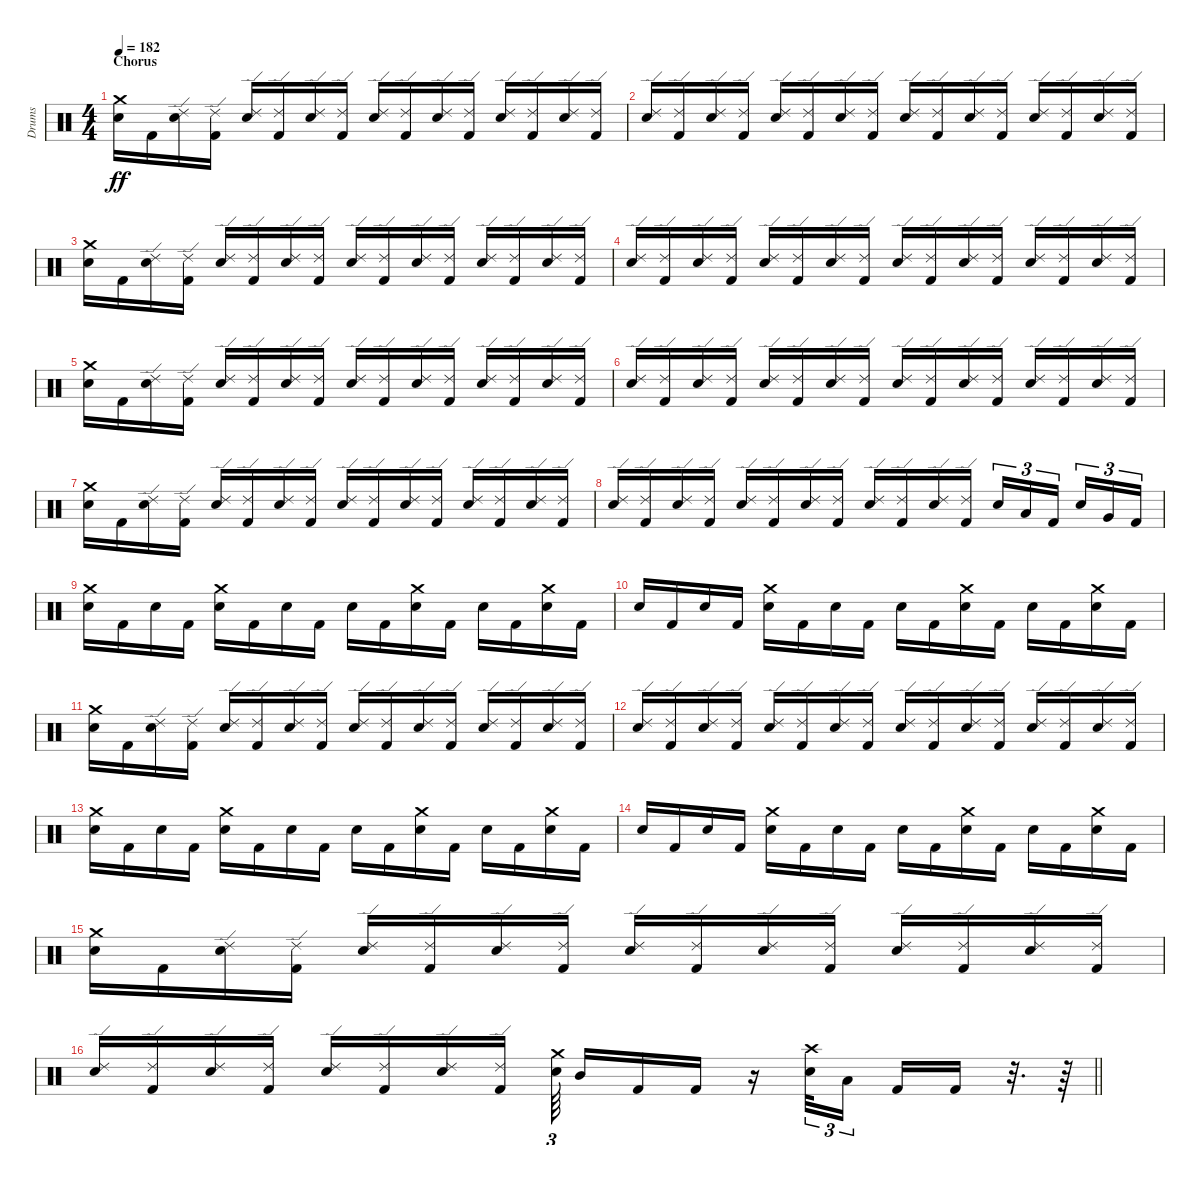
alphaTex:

\track ("Drums" "Drums") {instrument percussion}
\staff {score}
\articulation defaults
\ts (4 4)
\section ("" "Chorus")
\tempo 182
\clef neutral
\ks c
("Crash medium (hit)" "Snare (hit) 2").16{dy ff} "Kick (hit) 2".16 ("Snare (hit) 2" "Ride (edge) 2").16 ("Kick (hit) 2" "Ride (edge) 2").16 ("Snare (hit) 2" "Ride (edge) 2").16 ("Kick (hit) 2" "Ride (edge) 2").16 ("Snare (hit) 2" "Ride (edge) 2").16 ("Kick (hit) 2" "Ride (edge) 2").16 ("Snare (hit) 2" "Ride (edge) 2").16 ("Kick (hit) 2" "Ride (edge) 2").16 ("Snare (hit) 2" "Ride (edge) 2").16 ("Kick (hit) 2" "Ride (edge) 2").16 ("Snare (hit) 2" "Ride (edge) 2").16 ("Kick (hit) 2" "Ride (edge) 2").16 ("Snare (hit) 2" "Ride (edge) 2").16 ("Kick (hit) 2" "Ride (edge) 2").16 |
("Snare (hit) 2" "Ride (edge) 2").16 ("Kick (hit) 2" "Ride (edge) 2").16 ("Snare (hit) 2" "Ride (edge) 2").16 ("Kick (hit) 2" "Ride (edge) 2").16 ("Snare (hit) 2" "Ride (edge) 2").16 ("Kick (hit) 2" "Ride (edge) 2").16 ("Snare (hit) 2" "Ride (edge) 2").16 ("Kick (hit) 2" "Ride (edge) 2").16 ("Snare (hit) 2" "Ride (edge) 2").16 ("Kick (hit) 2" "Ride (edge) 2").16 ("Snare (hit) 2" "Ride (edge) 2").16 ("Kick (hit) 2" "Ride (edge) 2").16 ("Snare (hit) 2" "Ride (edge) 2").16 ("Kick (hit) 2" "Ride (edge) 2").16 ("Snare (hit) 2" "Ride (edge) 2").16 ("Kick (hit) 2" "Ride (edge) 2").16 |
("Crash medium (hit)" "Snare (hit) 2").16 "Kick (hit) 2".16 ("Snare (hit) 2" "Ride (edge) 2").16 ("Kick (hit) 2" "Ride (edge) 2").16 ("Snare (hit) 2" "Ride (edge) 2").16 ("Kick (hit) 2" "Ride (edge) 2").16 ("Snare (hit) 2" "Ride (edge) 2").16 ("Kick (hit) 2" "Ride (edge) 2").16 ("Snare (hit) 2" "Ride (edge) 2").16 ("Kick (hit) 2" "Ride (edge) 2").16 ("Snare (hit) 2" "Ride (edge) 2").16 ("Kick (hit) 2" "Ride (edge) 2").16 ("Snare (hit) 2" "Ride (edge) 2").16 ("Kick (hit) 2" "Ride (edge) 2").16 ("Snare (hit) 2" "Ride (edge) 2").16 ("Kick (hit) 2" "Ride (edge) 2").16 |
("Snare (hit) 2" "Ride (edge) 2").16 ("Kick (hit) 2" "Ride (edge) 2").16 ("Snare (hit) 2" "Ride (edge) 2").16 ("Kick (hit) 2" "Ride (edge) 2").16 ("Snare (hit) 2" "Ride (edge) 2").16 ("Kick (hit) 2" "Ride (edge) 2").16 ("Snare (hit) 2" "Ride (edge) 2").16 ("Kick (hit) 2" "Ride (edge) 2").16 ("Snare (hit) 2" "Ride (edge) 2").16 ("Kick (hit) 2" "Ride (edge) 2").16 ("Snare (hit) 2" "Ride (edge) 2").16 ("Kick (hit) 2" "Ride (edge) 2").16 ("Snare (hit) 2" "Ride (edge) 2").16 ("Kick (hit) 2" "Ride (edge) 2").16 ("Snare (hit) 2" "Ride (edge) 2").16 ("Kick (hit) 2" "Ride (edge) 2").16 |
("Crash medium (hit)" "Snare (hit) 2").16 "Kick (hit) 2".16 ("Snare (hit) 2" "Ride (edge) 2").16 ("Kick (hit) 2" "Ride (edge) 2").16 ("Snare (hit) 2" "Ride (edge) 2").16 ("Kick (hit) 2" "Ride (edge) 2").16 ("Snare (hit) 2" "Ride (edge) 2").16 ("Kick (hit) 2" "Ride (edge) 2").16 ("Snare (hit) 2" "Ride (edge) 2").16 ("Kick (hit) 2" "Ride (edge) 2").16 ("Snare (hit) 2" "Ride (edge) 2").16 ("Kick (hit) 2" "Ride (edge) 2").16 ("Snare (hit) 2" "Ride (edge) 2").16 ("Kick (hit) 2" "Ride (edge) 2").16 ("Snare (hit) 2" "Ride (edge) 2").16 ("Kick (hit) 2" "Ride (edge) 2").16 |
("Snare (hit) 2" "Ride (edge) 2").16 ("Kick (hit) 2" "Ride (edge) 2").16 ("Snare (hit) 2" "Ride (edge) 2").16 ("Kick (hit) 2" "Ride (edge) 2").16 ("Snare (hit) 2" "Ride (edge) 2").16 ("Kick (hit) 2" "Ride (edge) 2").16 ("Snare (hit) 2" "Ride (edge) 2").16 ("Kick (hit) 2" "Ride (edge) 2").16 ("Snare (hit) 2" "Ride (edge) 2").16 ("Kick (hit) 2" "Ride (edge) 2").16 ("Snare (hit) 2" "Ride (edge) 2").16 ("Kick (hit) 2" "Ride (edge) 2").16 ("Snare (hit) 2" "Ride (edge) 2").16 ("Kick (hit) 2" "Ride (edge) 2").16 ("Snare (hit) 2" "Ride (edge) 2").16 ("Kick (hit) 2" "Ride (edge) 2").16 |
("Crash medium (hit)" "Snare (hit) 2").16 "Kick (hit) 2".16 ("Snare (hit) 2" "Ride (edge) 2").16 ("Kick (hit) 2" "Ride (edge) 2").16 ("Snare (hit) 2" "Ride (edge) 2").16 ("Kick (hit) 2" "Ride (edge) 2").16 ("Snare (hit) 2" "Ride (edge) 2").16 ("Kick (hit) 2" "Ride (edge) 2").16 ("Snare (hit) 2" "Ride (edge) 2").16 ("Kick (hit) 2" "Ride (edge) 2").16 ("Snare (hit) 2" "Ride (edge) 2").16 ("Kick (hit) 2" "Ride (edge) 2").16 ("Snare (hit) 2" "Ride (edge) 2").16 ("Kick (hit) 2" "Ride (edge) 2").16 ("Snare (hit) 2" "Ride (edge) 2").16 ("Kick (hit) 2" "Ride (edge) 2").16 |
("Snare (hit) 2" "Ride (edge) 2").16 ("Kick (hit) 2" "Ride (edge) 2").16 ("Snare (hit) 2" "Ride (edge) 2").16 ("Kick (hit) 2" "Ride (edge) 2").16 ("Snare (hit) 2" "Ride (edge) 2").16 ("Kick (hit) 2" "Ride (edge) 2").16 ("Snare (hit) 2" "Ride (edge) 2").16 ("Kick (hit) 2" "Ride (edge) 2").16 ("Snare (hit) 2" "Ride (edge) 2").16 ("Kick (hit) 2" "Ride (edge) 2").16 ("Snare (hit) 2" "Ride (edge) 2").16 ("Kick (hit) 2" "Ride (edge) 2").16 "Snare (hit) 2".16{tu (3 2)} "Low Tom (hit)".16{tu (3 2)} "Kick (hit) 2".16{tu (3 2) beam splitsecondary} "Snare (hit) 2".16{tu (3 2)} "Very Low Tom (hit)".16{tu (3 2)} "Kick (hit) 2".16{tu (3 2)} |
("Crash medium (hit)" "Snare (hit) 2").16 "Kick (hit) 2".16 "Snare (hit) 2".16 "Kick (hit) 2".16 ("Crash medium (hit)" "Snare (hit) 2").16 "Kick (hit) 2".16 "Snare (hit) 2".16 "Kick (hit) 2".16 "Snare (hit) 2".16 "Kick (hit) 2".16 ("Crash medium (hit)" "Snare (hit) 2").16 "Kick (hit) 2".16 "Snare (hit) 2".16 "Kick (hit) 2".16 ("Crash medium (hit)" "Snare (hit) 2").16 "Kick (hit) 2".16 |
"Snare (hit) 2".16 "Kick (hit) 2".16 "Snare (hit) 2".16 "Kick (hit) 2".16 ("Crash medium (hit)" "Snare (hit) 2").16 "Kick (hit) 2".16 "Snare (hit) 2".16 "Kick (hit) 2".16 "Snare (hit) 2".16 "Kick (hit) 2".16 ("Crash medium (hit)" "Snare (hit) 2").16 "Kick (hit) 2".16 "Snare (hit) 2".16 "Kick (hit) 2".16 ("Crash medium (hit)" "Snare (hit) 2").16 "Kick (hit) 2".16 |
("Crash medium (hit)" "Snare (hit) 2").16 "Kick (hit) 2".16 ("Snare (hit) 2" "Ride (edge) 2").16 ("Kick (hit) 2" "Ride (edge) 2").16 ("Snare (hit) 2" "Ride (edge) 2").16 ("Kick (hit) 2" "Ride (edge) 2").16 ("Snare (hit) 2" "Ride (edge) 2").16 ("Kick (hit) 2" "Ride (edge) 2").16 ("Snare (hit) 2" "Ride (edge) 2").16 ("Kick (hit) 2" "Ride (edge) 2").16 ("Snare (hit) 2" "Ride (edge) 2").16 ("Kick (hit) 2" "Ride (edge) 2").16 ("Snare (hit) 2" "Ride (edge) 2").16 ("Kick (hit) 2" "Ride (edge) 2").16 ("Snare (hit) 2" "Ride (edge) 2").16 ("Kick (hit) 2" "Ride (edge) 2").16 |
("Snare (hit) 2" "Ride (edge) 2").16 ("Kick (hit) 2" "Ride (edge) 2").16 ("Snare (hit) 2" "Ride (edge) 2").16 ("Kick (hit) 2" "Ride (edge) 2").16 ("Snare (hit) 2" "Ride (edge) 2").16 ("Kick (hit) 2" "Ride (edge) 2").16 ("Snare (hit) 2" "Ride (edge) 2").16 ("Kick (hit) 2" "Ride (edge) 2").16 ("Snare (hit) 2" "Ride (edge) 2").16 ("Kick (hit) 2" "Ride (edge) 2").16 ("Snare (hit) 2" "Ride (edge) 2").16 ("Kick (hit) 2" "Ride (edge) 2").16 ("Snare (hit) 2" "Ride (edge) 2").16 ("Kick (hit) 2" "Ride (edge) 2").16 ("Snare (hit) 2" "Ride (edge) 2").16 ("Kick (hit) 2" "Ride (edge) 2").16 |
("Crash medium (hit)" "Snare (hit) 2").16 "Kick (hit) 2".16 "Snare (hit) 2".16 "Kick (hit) 2".16 ("Crash medium (hit)" "Snare (hit) 2").16 "Kick (hit) 2".16 "Snare (hit) 2".16 "Kick (hit) 2".16 "Snare (hit) 2".16 "Kick (hit) 2".16 ("Crash medium (hit)" "Snare (hit) 2").16 "Kick (hit) 2".16 "Snare (hit) 2".16 "Kick (hit) 2".16 ("Crash medium (hit)" "Snare (hit) 2").16 "Kick (hit) 2".16 |
"Snare (hit) 2".16 "Kick (hit) 2".16 "Snare (hit) 2".16 "Kick (hit) 2".16 ("Crash medium (hit)" "Snare (hit) 2").16 "Kick (hit) 2".16 "Snare (hit) 2".16 "Kick (hit) 2".16 "Snare (hit) 2".16 "Kick (hit) 2".16 ("Crash medium (hit)" "Snare (hit) 2").16 "Kick (hit) 2".16 "Snare (hit) 2".16 "Kick (hit) 2".16 ("Crash medium (hit)" "Snare (hit) 2").16 "Kick (hit) 2".16 |
("Crash medium (hit)" "Snare (hit) 2").16 "Kick (hit) 2".16 ("Snare (hit) 2" "Ride (edge) 2").16 ("Kick (hit) 2" "Ride (edge) 2").16 ("Snare (hit) 2" "Ride (edge) 2").16 ("Kick (hit) 2" "Ride (edge) 2").16 ("Snare (hit) 2" "Ride (edge) 2").16 ("Kick (hit) 2" "Ride (edge) 2").16 ("Snare (hit) 2" "Ride (edge) 2").16 ("Kick (hit) 2" "Ride (edge) 2").16 ("Snare (hit) 2" "Ride (edge) 2").16 ("Kick (hit) 2" "Ride (edge) 2").16 ("Snare (hit) 2" "Ride (edge) 2").16 ("Kick (hit) 2" "Ride (edge) 2").16 ("Snare (hit) 2" "Ride (edge) 2").16 ("Kick (hit) 2" "Ride (edge) 2").16 |
\barLineRight lightlight
("Snare (hit) 2" "Ride (edge) 2").16 ("Kick (hit) 2" "Ride (edge) 2").16 ("Snare (hit) 2" "Ride (edge) 2").16 ("Kick (hit) 2" "Ride (edge) 2").16 ("Snare (hit) 2" "Ride (edge) 2").16 ("Kick (hit) 2" "Ride (edge) 2").16 ("Snare (hit) 2" "Ride (edge) 2").16 ("Kick (hit) 2" "Ride (edge) 2").16 ("Crash medium (hit)" "Snare (hit) 2").64{tu (3 2) beam splitsecondary} "Mid Tom (hit)".16 "Kick (hit) 2".16 "Kick (hit) 2".16 r.16 ("Crash high (hit)" "Snare (hit) 2").32{tu (3 2)} "Low Tom (hit)".16{tu (3 2) beam splitsecondary} "Kick (hit) 2".16 "Kick (hit) 2".16 r.32{d} r.64
